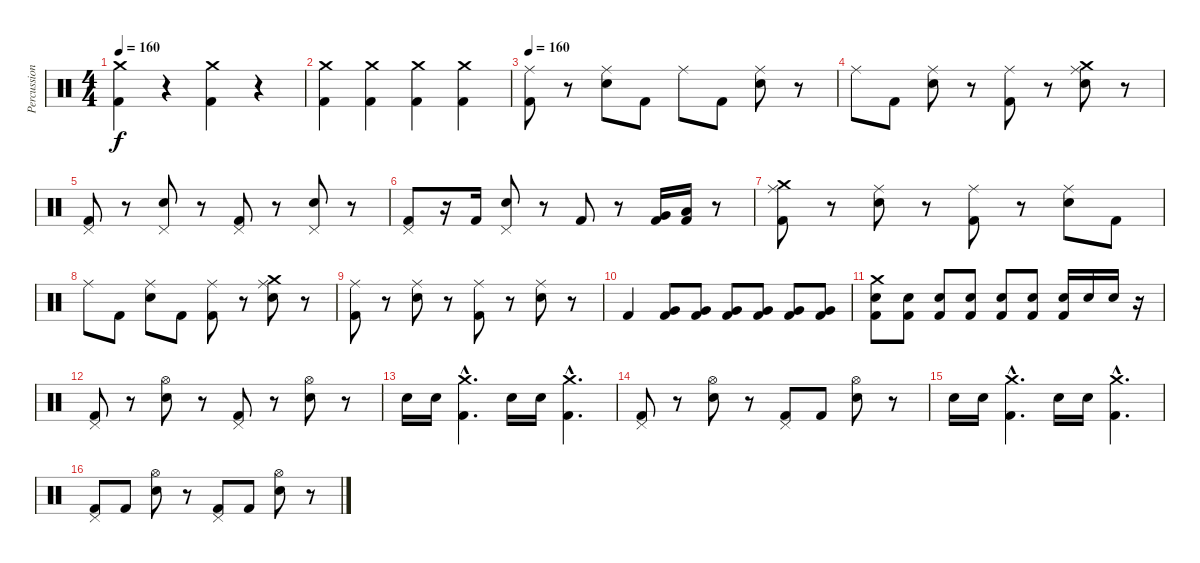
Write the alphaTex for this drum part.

\track ("Percussion" "Percussion") {instrument percussion}
\staff {score}
\articulation defaults
\ts (4 4)
\tempo 160
\clef neutral
\ks c
("Crash medium (hit)" "Kick (hit) 2").4{dy f} r.4 ("Crash medium (hit)" "Kick (hit) 2").4 r.4 |
("Crash medium (hit)" "Kick (hit) 2").4 ("Crash medium (hit)" "Kick (hit) 2").4 ("Crash medium (hit)" "Kick (hit) 2").4 ("Crash medium (hit)" "Kick (hit) 2").4 |
\tempo 160
("Ride (middle)" "Kick (hit) 2").8 r.8 ("Ride (middle)" "Snare (hit) 2").8 "Kick (hit) 2".8 "Ride (middle)".8 "Kick (hit) 2".8 ("Ride (middle)" "Snare (hit) 2").8 r.8 |
"Ride (middle)".8 "Kick (hit) 2".8 ("Ride (middle)" "Snare (hit) 2").8 r.8 ("Ride (middle)" "Kick (hit) 2").8 r.8 ("Ride (middle)" "Crash medium (hit)" "Snare (hit) 2").8 r.8 |
("Pedal Hi-Hat (hit)" "Kick (hit) 2").8 r.8 ("Pedal Hi-Hat (hit)" "Snare (hit) 2").8 r.8 ("Pedal Hi-Hat (hit)" "Kick (hit) 2").8 r.8 ("Pedal Hi-Hat (hit)" "Snare (hit) 2").8 r.8 |
("Pedal Hi-Hat (hit)" "Kick (hit) 2").8 r.16 "Kick (hit) 2".16 ("Pedal Hi-Hat (hit)" "Snare (hit) 2").8 r.8 "Kick (hit) 2".8 r.8 ("Kick (hit) 2" "Very Low Tom (hit)").16 ("Kick (hit) 2" "Low Tom (hit)").16 r.8 |
("Ride (middle)" "Crash medium (hit)" "Kick (hit) 2").8 r.8 ("Ride (middle)" "Snare (hit) 2").8 r.8 ("Ride (middle)" "Kick (hit) 2").8 r.8 ("Ride (middle)" "Snare (hit) 2").8 "Kick (hit) 2".8 |
"Ride (middle)".8 "Kick (hit) 2".8 ("Ride (middle)" "Snare (hit) 2").8 "Kick (hit) 2".8 ("Ride (middle)" "Kick (hit) 2").8 r.8 ("Crash medium (hit)" "Ride (middle)" "Snare (hit) 2").8 r.8 |
("Ride (middle)" "Kick (hit) 2").8 r.8 ("Ride (middle)" "Snare (hit) 2").8 r.8 ("Ride (middle)" "Kick (hit) 2").8 r.8 ("Ride (middle)" "Snare (hit) 2").8 r.8 |
"Kick (hit) 2".4 ("Very Low Tom (hit)" "Kick (hit) 2").8 ("Very Low Tom (hit)" "Kick (hit) 2").8 ("Very Low Tom (hit)" "Kick (hit) 2").8 ("Very Low Tom (hit)" "Kick (hit) 2").8 ("Very Low Tom (hit)" "Kick (hit) 2").8 ("Very Low Tom (hit)" "Kick (hit) 2").8 |
("Crash medium (hit)" "Kick (hit) 2" "Snare (hit) 2").8 ("Kick (hit) 2" "Snare (hit) 2").8 ("Kick (hit) 2" "Snare (hit) 2").8 ("Kick (hit) 2" "Snare (hit) 2").8 ("Kick (hit) 2" "Snare (hit) 2").8 ("Kick (hit) 2" "Snare (hit) 2").8 ("Kick (hit) 2" "Snare (hit) 2").16 "Snare (hit) 2".16 "Snare (hit) 2".16 r.16 |
("Pedal Hi-Hat (hit)" "Kick (hit) 2").8 r.8 ("Hi-Hat (open)" "Snare (hit) 2").8 r.8 ("Pedal Hi-Hat (hit)" "Kick (hit) 2").8 r.8 ("Hi-Hat (open)" "Snare (hit) 2").8 r.8 |
"Snare (hit) 2".16 "Snare (hit) 2".16 ("Crash medium (hit)"{hac} "Kick (hit) 2"{hac}).4{d} "Snare (hit) 2".16 "Snare (hit) 2".16 ("Crash medium (hit)"{hac} "Kick (hit) 2"{hac}).4{d} |
("Pedal Hi-Hat (hit)" "Kick (hit) 2").8 r.8 ("Hi-Hat (open)" "Snare (hit) 2").8 r.8 ("Pedal Hi-Hat (hit)" "Kick (hit) 2").8 "Kick (hit) 2".8 ("Hi-Hat (open)" "Snare (hit) 2").8 r.8 |
"Snare (hit) 2".16 "Snare (hit) 2".16 ("Crash medium (hit)"{hac} "Kick (hit) 2"{hac}).4{d} "Snare (hit) 2".16 "Snare (hit) 2".16 ("Crash medium (hit)"{hac} "Kick (hit) 2"{hac}).4{d} |
("Pedal Hi-Hat (hit)" "Kick (hit) 2").8 "Kick (hit) 2".8 ("Hi-Hat (open)" "Snare (hit) 2").8 r.8 ("Pedal Hi-Hat (hit)" "Kick (hit) 2").8 "Kick (hit) 2".8 ("Hi-Hat (open)" "Snare (hit) 2").8 r.8
